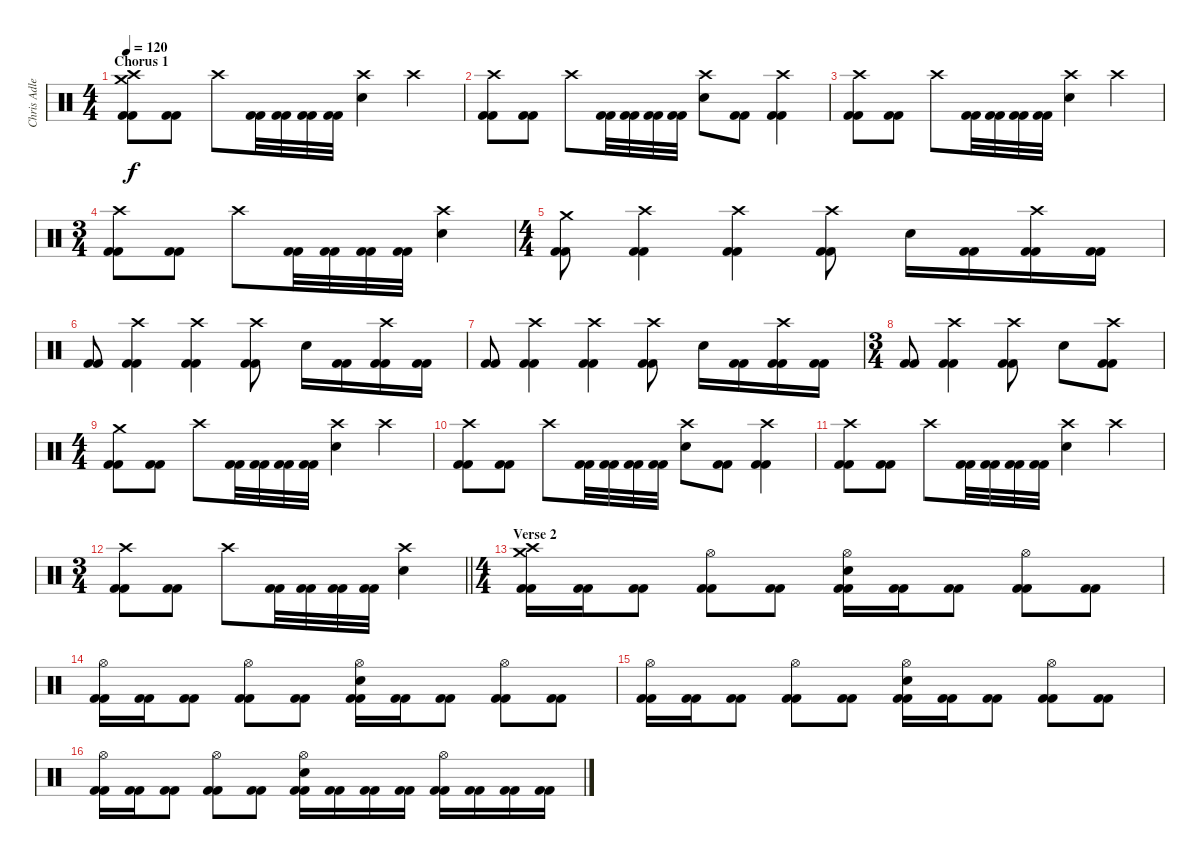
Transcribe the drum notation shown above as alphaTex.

\track ("Chris Adler" "Chris Adle") {instrument percussion}
\staff {score}
\articulation defaults
\ts (4 4)
\section ("" "Chorus 1")
\tempo 120
\clef neutral
\ks c
("Crash medium (hit)" "Crash high (hit)" "Kick (hit) 2" "Kick (hit) 2").8{dy f} ("Kick (hit) 2" "Kick (hit) 2").8 "Crash high (hit)".8 ("Kick (hit) 2" "Kick (hit) 2").32 ("Kick (hit) 2" "Kick (hit) 2").32 ("Kick (hit) 2" "Kick (hit) 2").32 ("Kick (hit) 2" "Kick (hit) 2").32 ("Crash high (hit)" "Electric Snare (hit)").4 "Crash high (hit)".4 |
("Crash high (hit)" "Kick (hit) 2" "Kick (hit) 2").8 ("Kick (hit) 2" "Kick (hit) 2").8 "Crash high (hit)".8 ("Kick (hit) 2" "Kick (hit) 2").32 ("Kick (hit) 2" "Kick (hit) 2").32 ("Kick (hit) 2" "Kick (hit) 2").32 ("Kick (hit) 2" "Kick (hit) 2").32 ("Crash high (hit)" "Electric Snare (hit)").8 ("Kick (hit) 2" "Kick (hit) 2").8 ("Crash high (hit)" "Kick (hit) 2" "Kick (hit) 2").4 |
("Crash high (hit)" "Kick (hit) 2" "Kick (hit) 2").8 ("Kick (hit) 2" "Kick (hit) 2").8 "Crash high (hit)".8 ("Kick (hit) 2" "Kick (hit) 2").32 ("Kick (hit) 2" "Kick (hit) 2").32 ("Kick (hit) 2" "Kick (hit) 2").32 ("Kick (hit) 2" "Kick (hit) 2").32 ("Crash high (hit)" "Electric Snare (hit)").4 "Crash high (hit)".4 |
\ts (3 4)
("Crash high (hit)" "Kick (hit) 2" "Kick (hit) 2").8 ("Kick (hit) 2" "Kick (hit) 2").8 "Crash high (hit)".8 ("Kick (hit) 2" "Kick (hit) 2").32 ("Kick (hit) 2" "Kick (hit) 2").32 ("Kick (hit) 2" "Kick (hit) 2").32 ("Kick (hit) 2" "Kick (hit) 2").32 ("Crash high (hit)" "Electric Snare (hit)").4 |
\ts (4 4)
("Crash medium (hit)" "Kick (hit) 2" "Kick (hit) 2").8 ("Crash high (hit)" "Kick (hit) 2" "Kick (hit) 2").4 ("Crash high (hit)" "Kick (hit) 2" "Kick (hit) 2").4 ("Crash high (hit)" "Kick (hit) 2" "Kick (hit) 2").8 "Electric Snare (hit)".16 ("Kick (hit) 2" "Kick (hit) 2").16 ("Crash high (hit)" "Kick (hit) 2" "Kick (hit) 2").16 ("Kick (hit) 2" "Kick (hit) 2").16 |
("Kick (hit) 2" "Kick (hit) 2").8 ("Crash high (hit)" "Kick (hit) 2" "Kick (hit) 2").4 ("Crash high (hit)" "Kick (hit) 2" "Kick (hit) 2").4 ("Crash high (hit)" "Kick (hit) 2" "Kick (hit) 2").8 "Electric Snare (hit)".16 ("Kick (hit) 2" "Kick (hit) 2").16 ("Crash high (hit)" "Kick (hit) 2" "Kick (hit) 2").16 ("Kick (hit) 2" "Kick (hit) 2").16 |
("Kick (hit) 2" "Kick (hit) 2").8 ("Crash high (hit)" "Kick (hit) 2" "Kick (hit) 2").4 ("Crash high (hit)" "Kick (hit) 2" "Kick (hit) 2").4 ("Crash high (hit)" "Kick (hit) 2" "Kick (hit) 2").8 "Electric Snare (hit)".16 ("Kick (hit) 2" "Kick (hit) 2").16 ("Crash high (hit)" "Kick (hit) 2" "Kick (hit) 2").16 ("Kick (hit) 2" "Kick (hit) 2").16 |
\ts (3 4)
("Kick (hit) 2" "Kick (hit) 2").8 ("Crash high (hit)" "Kick (hit) 2" "Kick (hit) 2").4 ("Crash high (hit)" "Kick (hit) 2" "Kick (hit) 2").8 "Electric Snare (hit)".8 ("Crash high (hit)" "Kick (hit) 2" "Kick (hit) 2").8 |
\ts (4 4)
("Crash medium (hit)" "Kick (hit) 2" "Kick (hit) 2").8 ("Kick (hit) 2" "Kick (hit) 2").8 "Crash high (hit)".8 ("Kick (hit) 2" "Kick (hit) 2").32 ("Kick (hit) 2" "Kick (hit) 2").32 ("Kick (hit) 2" "Kick (hit) 2").32 ("Kick (hit) 2" "Kick (hit) 2").32 ("Crash high (hit)" "Electric Snare (hit)").4 "Crash high (hit)".4 |
("Crash high (hit)" "Kick (hit) 2" "Kick (hit) 2").8 ("Kick (hit) 2" "Kick (hit) 2").8 "Crash high (hit)".8 ("Kick (hit) 2" "Kick (hit) 2").32 ("Kick (hit) 2" "Kick (hit) 2").32 ("Kick (hit) 2" "Kick (hit) 2").32 ("Kick (hit) 2" "Kick (hit) 2").32 ("Crash high (hit)" "Electric Snare (hit)").8 ("Kick (hit) 2" "Kick (hit) 2").8 ("Crash high (hit)" "Kick (hit) 2" "Kick (hit) 2").4 |
("Crash high (hit)" "Kick (hit) 2" "Kick (hit) 2").8 ("Kick (hit) 2" "Kick (hit) 2").8 "Crash high (hit)".8 ("Kick (hit) 2" "Kick (hit) 2").32 ("Kick (hit) 2" "Kick (hit) 2").32 ("Kick (hit) 2" "Kick (hit) 2").32 ("Kick (hit) 2" "Kick (hit) 2").32 ("Crash high (hit)" "Electric Snare (hit)").4 "Crash high (hit)".4 |
\ts (3 4)
\barLineRight lightlight
("Crash high (hit)" "Kick (hit) 2" "Kick (hit) 2").8 ("Kick (hit) 2" "Kick (hit) 2").8 "Crash high (hit)".8 ("Kick (hit) 2" "Kick (hit) 2").32 ("Kick (hit) 2" "Kick (hit) 2").32 ("Kick (hit) 2" "Kick (hit) 2").32 ("Kick (hit) 2" "Kick (hit) 2").32 ("Crash high (hit)" "Electric Snare (hit)").4 |
\ts (4 4)
\section ("" "Verse 2")
("Crash medium (hit)" "Crash high (hit)" "Kick (hit) 2" "Kick (hit) 2").16 ("Kick (hit) 2" "Kick (hit) 2").16 ("Kick (hit) 2" "Kick (hit) 2").8 ("Hi-Hat (open)" "Kick (hit) 2" "Kick (hit) 2").8 ("Kick (hit) 2" "Kick (hit) 2").8 ("Hi-Hat (open)" "Electric Snare (hit)" "Kick (hit) 2" "Kick (hit) 2").16 ("Kick (hit) 2" "Kick (hit) 2").16 ("Kick (hit) 2" "Kick (hit) 2").8 ("Hi-Hat (open)" "Kick (hit) 2" "Kick (hit) 2").8 ("Kick (hit) 2" "Kick (hit) 2").8 |
("Hi-Hat (open)" "Kick (hit) 2" "Kick (hit) 2").16 ("Kick (hit) 2" "Kick (hit) 2").16 ("Kick (hit) 2" "Kick (hit) 2").8 ("Hi-Hat (open)" "Kick (hit) 2" "Kick (hit) 2").8 ("Kick (hit) 2" "Kick (hit) 2").8 ("Hi-Hat (open)" "Electric Snare (hit)" "Kick (hit) 2" "Kick (hit) 2").16 ("Kick (hit) 2" "Kick (hit) 2").16 ("Kick (hit) 2" "Kick (hit) 2").8 ("Hi-Hat (open)" "Kick (hit) 2" "Kick (hit) 2").8 ("Kick (hit) 2" "Kick (hit) 2").8 |
("Hi-Hat (open)" "Kick (hit) 2" "Kick (hit) 2").16 ("Kick (hit) 2" "Kick (hit) 2").16 ("Kick (hit) 2" "Kick (hit) 2").8 ("Hi-Hat (open)" "Kick (hit) 2" "Kick (hit) 2").8 ("Kick (hit) 2" "Kick (hit) 2").8 ("Hi-Hat (open)" "Electric Snare (hit)" "Kick (hit) 2" "Kick (hit) 2").16 ("Kick (hit) 2" "Kick (hit) 2").16 ("Kick (hit) 2" "Kick (hit) 2").8 ("Hi-Hat (open)" "Kick (hit) 2" "Kick (hit) 2").8 ("Kick (hit) 2" "Kick (hit) 2").8 |
("Hi-Hat (open)" "Kick (hit) 2" "Kick (hit) 2").16 ("Kick (hit) 2" "Kick (hit) 2").16 ("Kick (hit) 2" "Kick (hit) 2").8 ("Hi-Hat (open)" "Kick (hit) 2" "Kick (hit) 2").8 ("Kick (hit) 2" "Kick (hit) 2").8 ("Hi-Hat (open)" "Electric Snare (hit)" "Kick (hit) 2" "Kick (hit) 2").16 ("Kick (hit) 2" "Kick (hit) 2").16 ("Kick (hit) 2" "Kick (hit) 2").16 ("Kick (hit) 2" "Kick (hit) 2").16 ("Hi-Hat (open)" "Kick (hit) 2" "Kick (hit) 2").16 ("Kick (hit) 2" "Kick (hit) 2").16 ("Kick (hit) 2" "Kick (hit) 2").16 ("Kick (hit) 2" "Kick (hit) 2").16
